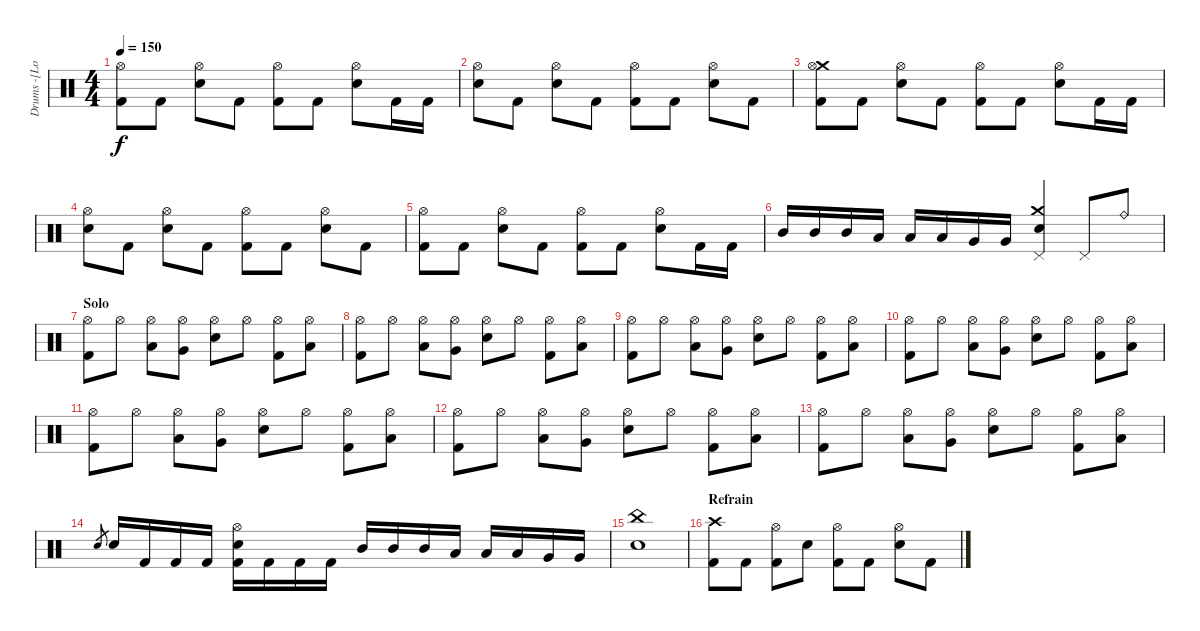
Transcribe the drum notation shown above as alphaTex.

\track ("Drums -[Lorenz]-" "Drums -[Lo") {instrument percussion}
\staff {score}
\articulation defaults
\ts (4 4)
\tempo 150
\clef neutral
\ks c
("Hi-Hat (open)" "Kick (hit) 2").8{dy f} "Kick (hit) 2".8 ("Hi-Hat (open)" "Electric Snare (hit)").8 "Kick (hit) 2".8 ("Hi-Hat (open)" "Kick (hit) 2").8 "Kick (hit) 2".8 ("Hi-Hat (open)" "Electric Snare (hit)").8 "Kick (hit) 2".16 "Kick (hit) 2".16 |
("Hi-Hat (open)" "Electric Snare (hit)").8 "Kick (hit) 2".8 ("Hi-Hat (open)" "Electric Snare (hit)").8 "Kick (hit) 2".8 ("Hi-Hat (open)" "Kick (hit) 2").8 "Kick (hit) 2".8 ("Hi-Hat (open)" "Electric Snare (hit)").8 "Kick (hit) 2".8 |
("Crash medium (hit)" "Hi-Hat (open)" "Kick (hit) 2").8 "Kick (hit) 2".8 ("Hi-Hat (open)" "Electric Snare (hit)").8 "Kick (hit) 2".8 ("Hi-Hat (open)" "Kick (hit) 2").8 "Kick (hit) 2".8 ("Hi-Hat (open)" "Electric Snare (hit)").8 "Kick (hit) 2".16 "Kick (hit) 2".16 |
("Hi-Hat (open)" "Electric Snare (hit)").8 "Kick (hit) 2".8 ("Hi-Hat (open)" "Electric Snare (hit)").8 "Kick (hit) 2".8 ("Hi-Hat (open)" "Kick (hit) 2").8 "Kick (hit) 2".8 ("Hi-Hat (open)" "Electric Snare (hit)").8 "Kick (hit) 2".8 |
("Hi-Hat (open)" "Kick (hit) 2").8 "Kick (hit) 2".8 ("Hi-Hat (open)" "Electric Snare (hit)").8 "Kick (hit) 2".8 ("Hi-Hat (open)" "Kick (hit) 2").8 "Kick (hit) 2".8 ("Hi-Hat (open)" "Electric Snare (hit)").8 "Kick (hit) 2".16 "Kick (hit) 2".16 |
"Mid Tom (hit)".16 "Mid Tom (hit)".16 "Mid Tom (hit)".16 "Low Tom (hit)".16 "Low Tom (hit)".16 "Low Tom (hit)".16 "Very Low Tom (hit)".16 "Very Low Tom (hit)".16 ("Crash medium (hit)" "Electric Snare (hit)" "Pedal Hi-Hat (hit)").4 "Pedal Hi-Hat (hit)".8 "Ride (bell)".8 |
\section ("" "Solo")
("Hi-Hat (open)" "Kick (hit) 2").8 "Hi-Hat (open)".8 ("Hi-Hat (open)" "Low Tom (hit)").8 ("Hi-Hat (open)" "Very Low Tom (hit)").8 ("Hi-Hat (open)" "Electric Snare (hit)").8 "Hi-Hat (open)".8 ("Hi-Hat (open)" "Kick (hit) 2").8 ("Hi-Hat (open)" "Low Tom (hit)").8 |
("Hi-Hat (open)" "Kick (hit) 2").8 "Hi-Hat (open)".8 ("Hi-Hat (open)" "Low Tom (hit)").8 ("Hi-Hat (open)" "Very Low Tom (hit)").8 ("Hi-Hat (open)" "Electric Snare (hit)").8 "Hi-Hat (open)".8 ("Hi-Hat (open)" "Kick (hit) 2").8 ("Hi-Hat (open)" "Low Tom (hit)").8 |
("Hi-Hat (open)" "Kick (hit) 2").8 "Hi-Hat (open)".8 ("Hi-Hat (open)" "Low Tom (hit)").8 ("Hi-Hat (open)" "Very Low Tom (hit)").8 ("Hi-Hat (open)" "Electric Snare (hit)").8 "Hi-Hat (open)".8 ("Hi-Hat (open)" "Kick (hit) 2").8 ("Hi-Hat (open)" "Low Tom (hit)").8 |
("Hi-Hat (open)" "Kick (hit) 2").8 "Hi-Hat (open)".8 ("Hi-Hat (open)" "Low Tom (hit)").8 ("Hi-Hat (open)" "Very Low Tom (hit)").8 ("Hi-Hat (open)" "Electric Snare (hit)").8 "Hi-Hat (open)".8 ("Hi-Hat (open)" "Kick (hit) 2").8 ("Hi-Hat (open)" "Low Tom (hit)").8 |
("Hi-Hat (open)" "Kick (hit) 2").8 "Hi-Hat (open)".8 ("Hi-Hat (open)" "Low Tom (hit)").8 ("Hi-Hat (open)" "Very Low Tom (hit)").8 ("Hi-Hat (open)" "Electric Snare (hit)").8 "Hi-Hat (open)".8 ("Hi-Hat (open)" "Kick (hit) 2").8 ("Hi-Hat (open)" "Low Tom (hit)").8 |
("Hi-Hat (open)" "Kick (hit) 2").8 "Hi-Hat (open)".8 ("Hi-Hat (open)" "Low Tom (hit)").8 ("Hi-Hat (open)" "Very Low Tom (hit)").8 ("Hi-Hat (open)" "Electric Snare (hit)").8 "Hi-Hat (open)".8 ("Hi-Hat (open)" "Kick (hit) 2").8 ("Hi-Hat (open)" "Low Tom (hit)").8 |
("Hi-Hat (open)" "Kick (hit) 2").8 "Hi-Hat (open)".8 ("Hi-Hat (open)" "Low Tom (hit)").8 ("Hi-Hat (open)" "Very Low Tom (hit)").8 ("Hi-Hat (open)" "Electric Snare (hit)").8 "Hi-Hat (open)".8 ("Hi-Hat (open)" "Kick (hit) 2").8 ("Hi-Hat (open)" "Low Tom (hit)").8 |
"Electric Snare (hit)".8{gr} "Electric Snare (hit)".16 "Kick (hit) 2".16 "Kick (hit) 2".16 "Kick (hit) 2".16 ("Hi-Hat (open)" "Electric Snare (hit)" "Kick (hit) 2").16 "Kick (hit) 2".16 "Kick (hit) 2".16 "Kick (hit) 2".16 "Mid Tom (hit)".16 "Mid Tom (hit)".16 "Mid Tom (hit)".16 "Low Tom (hit)".16 "Low Tom (hit)".16 "Low Tom (hit)".16 "Very Low Tom (hit)".16 "Very Low Tom (hit)".16 |
("China (hit)" "Electric Snare (hit)").1 |
\section ("" "Refrain")
("Crash high (hit)" "Kick (hit) 2").8 "Kick (hit) 2".8 ("Hi-Hat (open)" "Kick (hit) 2").8 "Electric Snare (hit)".8 ("Hi-Hat (open)" "Kick (hit) 2").8 "Kick (hit) 2".8 ("Hi-Hat (open)" "Electric Snare (hit)").8 "Kick (hit) 2".8
